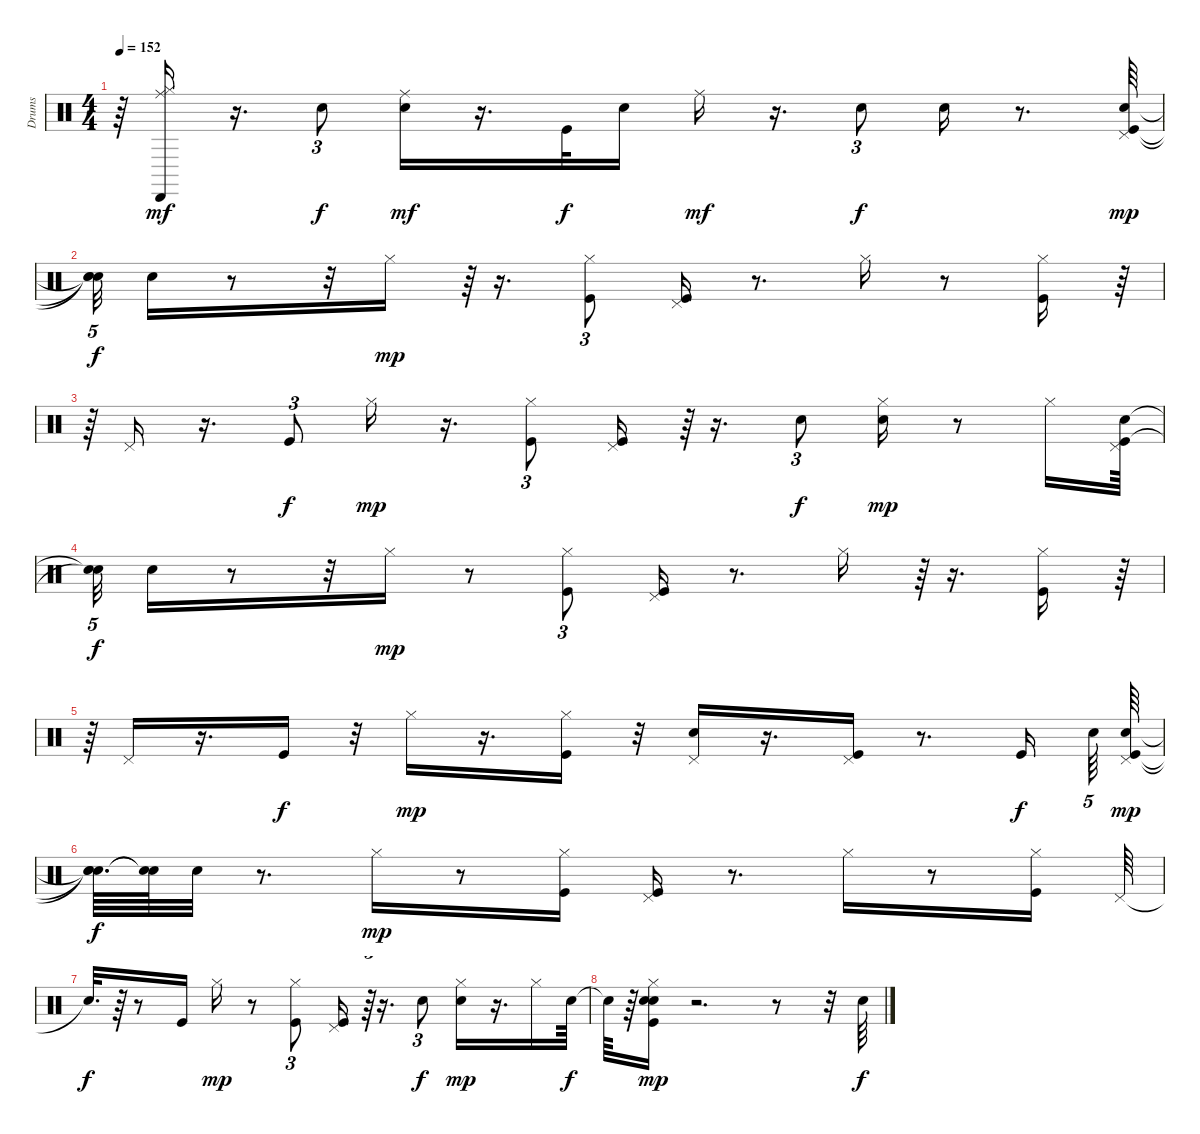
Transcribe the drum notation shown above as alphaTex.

\track ("Drums" "Drums") {instrument percussion}
\staff {score}
\articulation defaults
\ts (4 4)
\tempo 152
\clef neutral
\ks c
r.64{dy mf} ("Hi-Hat (closed)" "Ride (middle)" "Cabasa (hit)").16 r.16{d} "Snare (hit) 2".8{tu (3 2) dy f} ("Snare (hit) 2" "Ride (middle)").16{dy mf} r.16{d} "Kick (hit)".32{dy f} "Snare (hit) 2".16 "Ride (middle)".16{dy mf} r.16{d} "Snare (hit) 2".8{tu (3 2) dy f} "Snare (hit) 2".16 r.8{d} ("Kick (hit)" "Snare (hit) 2" "Pedal Hi-Hat (hit)").64{dy mp} |
("Snare (hit)"{t} "Snare (hit)"{t} "Snare (hit)"{t}).32{tu (5 4) dy f} "Snare (hit) 2".16 r.8 r.32 "Hi-Hat (closed)".16{dy mp} r.64{tu (3 2)} r.16{d} ("Kick (hit)" "Hi-Hat (closed)").8{tu (3 2)} ("Kick (hit)" "Pedal Hi-Hat (hit)").16 r.8{d} "Hi-Hat (closed)".16 r.8 ("Kick (hit)" "Hi-Hat (closed)").16 r.64 |
r.64 "Pedal Hi-Hat (hit)".16 r.16{d} "Kick (hit)".8{tu (3 2) dy f} "Hi-Hat (closed)".16{dy mp} r.16{d} ("Kick (hit)" "Hi-Hat (closed)").8{tu (3 2)} ("Kick (hit)" "Pedal Hi-Hat (hit)").16 r.64{tu (3 2)} r.16{d} "Snare (hit) 2".8{tu (3 2) dy f} ("Snare (hit) 2" "Hi-Hat (closed)").16{dy mp} r.8 "Hi-Hat (closed)".16 ("Snare (hit) 2" "Kick (hit)" "Pedal Hi-Hat (hit)").64 |
("Snare (hit)"{t} "Snare (hit)"{t}).32{tu (5 4) dy f} "Snare (hit) 2".16 r.8 r.32 "Hi-Hat (closed)".16{dy mp} r.8 ("Kick (hit)" "Hi-Hat (closed)").8{tu (3 2)} ("Kick (hit)" "Pedal Hi-Hat (hit)").16 r.8{d} "Hi-Hat (closed)".16 r.64{tu (3 2)} r.16{d} ("Kick (hit)" "Hi-Hat (closed)").16 r.64 |
r.64 "Pedal Hi-Hat (hit)".16 r.16{d} "Kick (hit)".16{dy f} r.32 "Hi-Hat (closed)".16{dy mp} r.16{d} ("Kick (hit)" "Hi-Hat (closed)").16 r.32 ("Snare (hit) 2" "Pedal Hi-Hat (hit)").16 r.16{d} ("Kick (hit)" "Pedal Hi-Hat (hit)").16 r.8{d} "Kick (hit)".16{dy f} "Snare (hit) 2".64{tu (5 4)} ("Kick (hit)" "Pedal Hi-Hat (hit)" "Snare (hit) 2").64{dy mp} |
("Snare (hit)"{t} "Snare (hit)"{t} "Snare (hit)"{t}).64{d dy f} ("Snare (hit)"{t} "Snare (hit)"{t}).64 "Snare (hit) 2".32 r.8{d} "Hi-Hat (closed)".16{dy mp} r.8 ("Kick (hit)" "Hi-Hat (closed)").16 ("Kick (hit)" "Pedal Hi-Hat (hit)").16 r.8{d} "Hi-Hat (closed)".16 r.8 ("Kick (hit)" "Hi-Hat (closed)").16 "Pedal Hi-Hat (hit)".64 |
"Snare (hit)"{t}.32{d dy f} r.64 r.8 "Kick (hit)".16 "Hi-Hat (closed)".16{dy mp} r.8 ("Kick (hit)" "Hi-Hat (closed)").8{tu (3 2)} ("Kick (hit)" "Pedal Hi-Hat (hit)").16 r.64{tu (3 2)} r.16{d} "Snare (hit) 2".8{tu (3 2) dy f} ("Snare (hit) 2" "Hi-Hat (closed)").16{dy mp} r.16{d} "Hi-Hat (closed)".16 "Snare (hit) 2".64{dy f} |
"Snare (hit)"{t}.64 r.64 ("Kick (hit)" "Snare (hit) 2" "Hi-Hat (closed)" "Snare (hit) 2").16{dy mp} r.2{d} r.8 r.32 "Snare (hit) 2".64{dy f}
